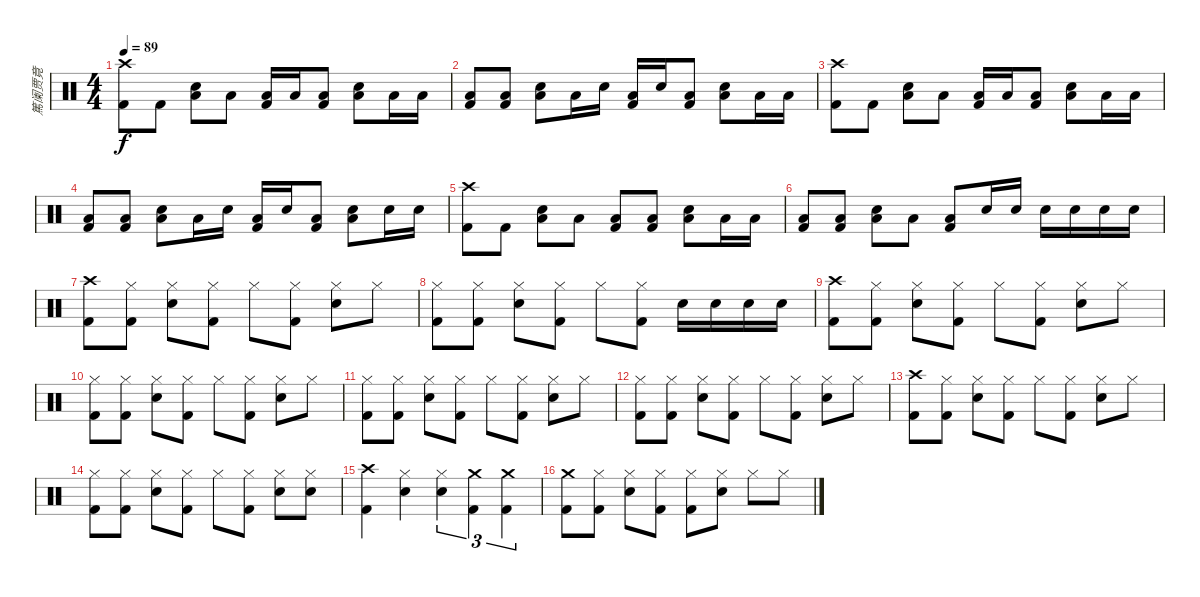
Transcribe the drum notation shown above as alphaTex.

\track ("篤阑贾竟" "篤阑贾竟") {instrument percussion}
\staff {score}
\articulation defaults
\ts (4 4)
\tempo 89
\clef neutral
\ks c
("Crash high (hit)" "Kick (hit) 2").8{dy f} "Kick (hit) 2".8 ("Snare (hit) 2" "Low Floor Tom (hit)").8 "Low Floor Tom (hit)".8 ("Low Floor Tom (hit)" "Kick (hit) 2").16 "Low Floor Tom (hit)".16 ("Low Floor Tom (hit)" "Kick (hit) 2").8 ("Snare (hit) 2" "Low Floor Tom (hit)").8 "Low Floor Tom (hit)".16 "Low Floor Tom (hit)".16 |
("Low Floor Tom (hit)" "Kick (hit) 2").8 ("Low Floor Tom (hit)" "Kick (hit) 2").8 ("Snare (hit) 2" "Low Floor Tom (hit)").8 "Low Floor Tom (hit)".16 "Snare (hit) 2".16 ("Low Floor Tom (hit)" "Kick (hit) 2").16 "Snare (hit) 2".16 ("Low Floor Tom (hit)" "Kick (hit) 2").8 ("Snare (hit) 2" "Low Floor Tom (hit)").8 "Low Floor Tom (hit)".16 "Low Floor Tom (hit)".16 |
("Crash high (hit)" "Kick (hit) 2").8 "Kick (hit) 2".8 ("Snare (hit) 2" "Low Floor Tom (hit)").8 "Low Floor Tom (hit)".8 ("Low Floor Tom (hit)" "Kick (hit) 2").16 "Low Floor Tom (hit)".16 ("Low Floor Tom (hit)" "Kick (hit) 2").8 ("Snare (hit) 2" "Low Floor Tom (hit)").8 "Low Floor Tom (hit)".16 "Low Floor Tom (hit)".16 |
("Low Floor Tom (hit)" "Kick (hit) 2").8 ("Low Floor Tom (hit)" "Kick (hit) 2").8 ("Snare (hit) 2" "Low Floor Tom (hit)").8 "Low Floor Tom (hit)".16 "Snare (hit) 2".16 ("Low Floor Tom (hit)" "Kick (hit) 2").16 "Snare (hit) 2".16 ("Low Floor Tom (hit)" "Kick (hit) 2").8 ("Snare (hit) 2" "Low Floor Tom (hit)").8 "Snare (hit) 2".16 "Snare (hit) 2".16 |
("Crash high (hit)" "Kick (hit) 2").8 "Kick (hit) 2".8 ("Snare (hit) 2" "Low Floor Tom (hit)").8 "Low Floor Tom (hit)".8 ("Low Floor Tom (hit)" "Kick (hit) 2").8 ("Low Floor Tom (hit)" "Kick (hit) 2").8 ("Snare (hit) 2" "Low Floor Tom (hit)").8 "Low Floor Tom (hit)".16 "Low Floor Tom (hit)".16 |
("Low Floor Tom (hit)" "Kick (hit) 2").8 ("Low Floor Tom (hit)" "Kick (hit) 2").8 ("Snare (hit) 2" "Low Floor Tom (hit)").8 "Low Floor Tom (hit)".8 ("Low Floor Tom (hit)" "Kick (hit) 2").8 "Snare (hit) 2".16 "Snare (hit) 2".16 "Snare (hit) 2".16 "Snare (hit) 2".16 "Snare (hit) 2".16 "Snare (hit) 2".16 |
("Crash high (hit)" "Kick (hit) 2").8 ("Hi-Hat (closed)" "Kick (hit) 2").8 ("Hi-Hat (closed)" "Snare (hit) 2").8 ("Hi-Hat (closed)" "Kick (hit) 2").8 "Hi-Hat (closed)".8 ("Hi-Hat (closed)" "Kick (hit) 2").8 ("Hi-Hat (closed)" "Snare (hit) 2").8 "Hi-Hat (closed)".8 |
("Hi-Hat (closed)" "Kick (hit) 2").8 ("Hi-Hat (closed)" "Kick (hit) 2").8 ("Hi-Hat (closed)" "Snare (hit) 2").8 ("Hi-Hat (closed)" "Kick (hit) 2").8 "Hi-Hat (closed)".8 ("Hi-Hat (closed)" "Kick (hit) 2").8 "Snare (hit) 2".16 "Snare (hit) 2".16 "Snare (hit) 2".16 "Snare (hit) 2".16 |
("Crash high (hit)" "Kick (hit) 2").8 ("Hi-Hat (closed)" "Kick (hit) 2").8 ("Hi-Hat (closed)" "Snare (hit) 2").8 ("Hi-Hat (closed)" "Kick (hit) 2").8 "Hi-Hat (closed)".8 ("Hi-Hat (closed)" "Kick (hit) 2").8 ("Hi-Hat (closed)" "Snare (hit) 2").8 "Hi-Hat (closed)".8 |
("Hi-Hat (closed)" "Kick (hit) 2").8 ("Hi-Hat (closed)" "Kick (hit) 2").8 ("Hi-Hat (closed)" "Snare (hit) 2").8 ("Hi-Hat (closed)" "Kick (hit) 2").8 "Hi-Hat (closed)".8 ("Hi-Hat (closed)" "Kick (hit) 2").8 ("Hi-Hat (closed)" "Snare (hit) 2").8 "Hi-Hat (closed)".8 |
("Hi-Hat (closed)" "Kick (hit) 2").8 ("Hi-Hat (closed)" "Kick (hit) 2").8 ("Hi-Hat (closed)" "Snare (hit) 2").8 ("Hi-Hat (closed)" "Kick (hit) 2").8 "Hi-Hat (closed)".8 ("Hi-Hat (closed)" "Kick (hit) 2").8 ("Hi-Hat (closed)" "Snare (hit) 2").8 "Hi-Hat (closed)".8 |
("Hi-Hat (closed)" "Kick (hit) 2").8 ("Hi-Hat (closed)" "Kick (hit) 2").8 ("Hi-Hat (closed)" "Snare (hit) 2").8 ("Hi-Hat (closed)" "Kick (hit) 2").8 "Hi-Hat (closed)".8 ("Hi-Hat (closed)" "Kick (hit) 2").8 ("Hi-Hat (closed)" "Snare (hit) 2").8 "Hi-Hat (closed)".8 |
("Crash high (hit)" "Kick (hit) 2").8 ("Hi-Hat (closed)" "Kick (hit) 2").8 ("Hi-Hat (closed)" "Snare (hit) 2").8 ("Hi-Hat (closed)" "Kick (hit) 2").8 "Hi-Hat (closed)".8 ("Hi-Hat (closed)" "Kick (hit) 2").8 ("Hi-Hat (closed)" "Snare (hit) 2").8 "Hi-Hat (closed)".8 |
("Hi-Hat (closed)" "Kick (hit) 2").8 ("Hi-Hat (closed)" "Kick (hit) 2").8 ("Hi-Hat (closed)" "Snare (hit) 2").8 ("Hi-Hat (closed)" "Kick (hit) 2").8 "Hi-Hat (closed)".8 ("Hi-Hat (closed)" "Kick (hit) 2").8 ("Hi-Hat (closed)" "Snare (hit) 2").8 ("Hi-Hat (closed)" "Snare (hit) 2").8 |
("Crash high (hit)" "Kick (hit) 2").4 ("Hi-Hat (closed)" "Snare (hit) 2").4 ("Hi-Hat (closed)" "Snare (hit) 2").4{tu (3 2)} ("Crash medium (hit)" "Kick (hit) 2").4{tu (3 2)} ("Crash medium (hit)" "Kick (hit) 2").4{tu (3 2)} |
("Crash medium (hit)" "Kick (hit) 2").8 ("Hi-Hat (closed)" "Kick (hit) 2").8 ("Hi-Hat (closed)" "Snare (hit) 2").8 ("Hi-Hat (closed)" "Kick (hit) 2").8 ("Hi-Hat (closed)" "Kick (hit) 2").8 ("Hi-Hat (closed)" "Snare (hit) 2").8 "Hi-Hat (closed)".8 "Hi-Hat (closed)".8
